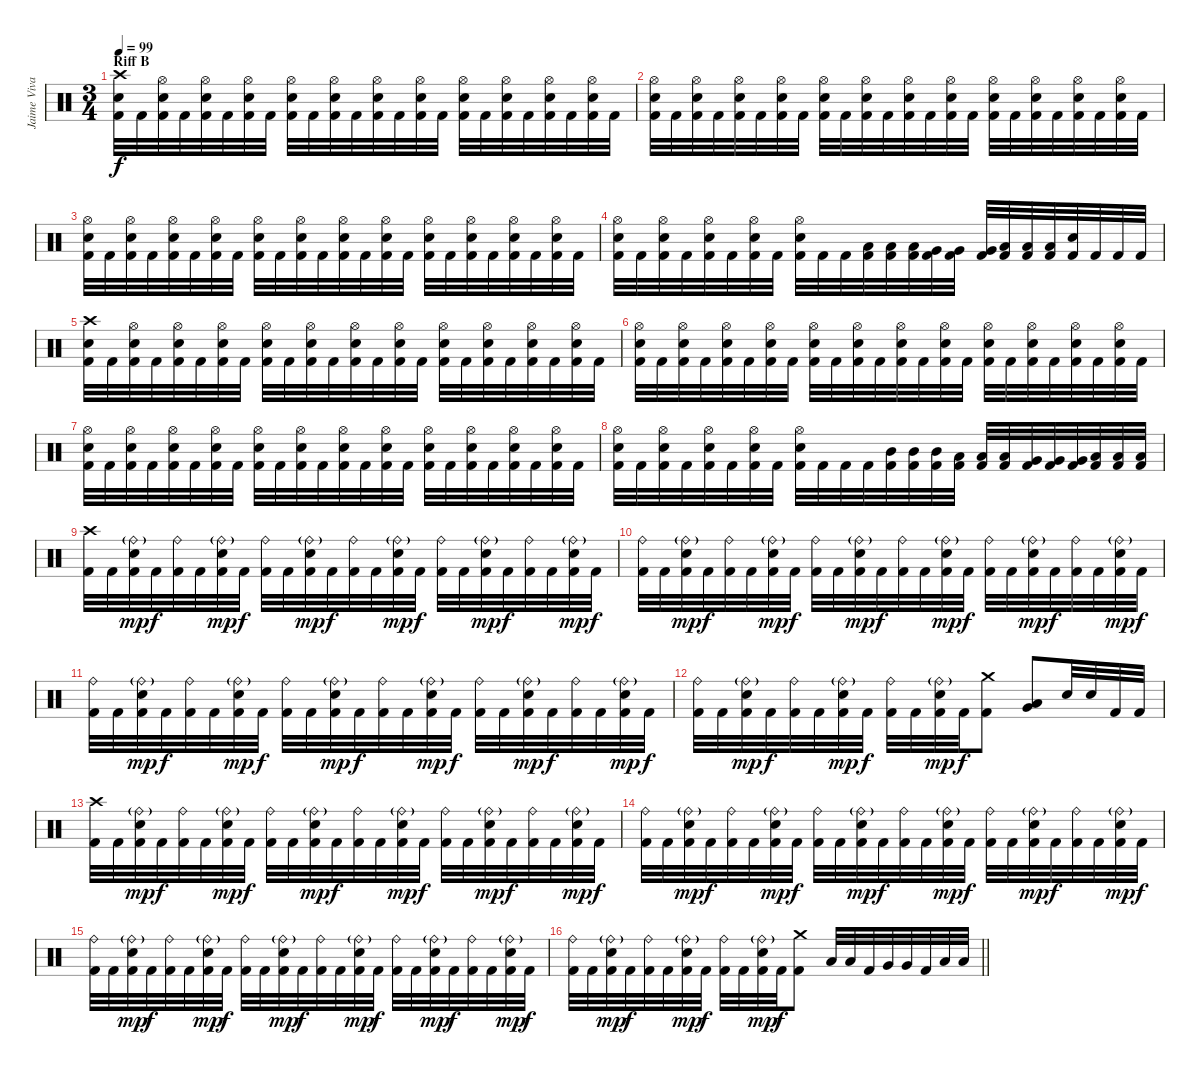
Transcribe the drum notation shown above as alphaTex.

\track ("Jaime Vivar" "Jaime Viva") {instrument percussion}
\staff {score}
\articulation defaults
\ts (3 4)
\section ("" "Riff B")
\tempo 99
\clef neutral
\ks c
("Crash high (hit)" "Snare (hit) 2" "Kick (hit) 2").32{dy f} "Kick (hit) 2".32 ("Hi-Hat (open)" "Snare (hit) 2" "Kick (hit) 2").32 "Kick (hit) 2".32 ("Hi-Hat (open)" "Snare (hit) 2" "Kick (hit) 2").32 "Kick (hit) 2".32 ("Hi-Hat (open)" "Snare (hit) 2" "Kick (hit) 2").32 "Kick (hit) 2".32 ("Hi-Hat (open)" "Snare (hit) 2" "Kick (hit) 2").32 "Kick (hit) 2".32 ("Hi-Hat (open)" "Snare (hit) 2" "Kick (hit) 2").32 "Kick (hit) 2".32 ("Hi-Hat (open)" "Snare (hit) 2" "Kick (hit) 2").32 "Kick (hit) 2".32 ("Hi-Hat (open)" "Snare (hit) 2" "Kick (hit) 2").32 "Kick (hit) 2".32 ("Hi-Hat (open)" "Snare (hit) 2" "Kick (hit) 2").32 "Kick (hit) 2".32 ("Hi-Hat (open)" "Snare (hit) 2" "Kick (hit) 2").32 "Kick (hit) 2".32 ("Hi-Hat (open)" "Snare (hit) 2" "Kick (hit) 2").32 "Kick (hit) 2".32 ("Hi-Hat (open)" "Snare (hit) 2" "Kick (hit) 2").32 "Kick (hit) 2".32 |
("Hi-Hat (open)" "Snare (hit) 2" "Kick (hit) 2").32 "Kick (hit) 2".32 ("Hi-Hat (open)" "Snare (hit) 2" "Kick (hit) 2").32 "Kick (hit) 2".32 ("Hi-Hat (open)" "Snare (hit) 2" "Kick (hit) 2").32 "Kick (hit) 2".32 ("Hi-Hat (open)" "Snare (hit) 2" "Kick (hit) 2").32 "Kick (hit) 2".32 ("Hi-Hat (open)" "Snare (hit) 2" "Kick (hit) 2").32 "Kick (hit) 2".32 ("Hi-Hat (open)" "Snare (hit) 2" "Kick (hit) 2").32 "Kick (hit) 2".32 ("Hi-Hat (open)" "Snare (hit) 2" "Kick (hit) 2").32 "Kick (hit) 2".32 ("Hi-Hat (open)" "Snare (hit) 2" "Kick (hit) 2").32 "Kick (hit) 2".32 ("Hi-Hat (open)" "Snare (hit) 2" "Kick (hit) 2").32 "Kick (hit) 2".32 ("Hi-Hat (open)" "Snare (hit) 2" "Kick (hit) 2").32 "Kick (hit) 2".32 ("Hi-Hat (open)" "Snare (hit) 2" "Kick (hit) 2").32 "Kick (hit) 2".32 ("Hi-Hat (open)" "Snare (hit) 2" "Kick (hit) 2").32 "Kick (hit) 2".32 |
("Hi-Hat (open)" "Snare (hit) 2" "Kick (hit) 2").32 "Kick (hit) 2".32 ("Hi-Hat (open)" "Snare (hit) 2" "Kick (hit) 2").32 "Kick (hit) 2".32 ("Hi-Hat (open)" "Snare (hit) 2" "Kick (hit) 2").32 "Kick (hit) 2".32 ("Hi-Hat (open)" "Snare (hit) 2" "Kick (hit) 2").32 "Kick (hit) 2".32 ("Hi-Hat (open)" "Snare (hit) 2" "Kick (hit) 2").32 "Kick (hit) 2".32 ("Hi-Hat (open)" "Snare (hit) 2" "Kick (hit) 2").32 "Kick (hit) 2".32 ("Hi-Hat (open)" "Snare (hit) 2" "Kick (hit) 2").32 "Kick (hit) 2".32 ("Hi-Hat (open)" "Snare (hit) 2" "Kick (hit) 2").32 "Kick (hit) 2".32 ("Hi-Hat (open)" "Snare (hit) 2" "Kick (hit) 2").32 "Kick (hit) 2".32 ("Hi-Hat (open)" "Snare (hit) 2" "Kick (hit) 2").32 "Kick (hit) 2".32 ("Hi-Hat (open)" "Snare (hit) 2" "Kick (hit) 2").32 "Kick (hit) 2".32 ("Hi-Hat (open)" "Snare (hit) 2" "Kick (hit) 2").32 "Kick (hit) 2".32 |
("Hi-Hat (open)" "Snare (hit) 2" "Kick (hit) 2").32 "Kick (hit) 2".32 ("Hi-Hat (open)" "Snare (hit) 2" "Kick (hit) 2").32 "Kick (hit) 2".32 ("Hi-Hat (open)" "Snare (hit) 2" "Kick (hit) 2").32 "Kick (hit) 2".32 ("Hi-Hat (open)" "Snare (hit) 2" "Kick (hit) 2").32 "Kick (hit) 2".32 ("Hi-Hat (open)" "Snare (hit) 2" "Kick (hit) 2").32 "Kick (hit) 2".32 "Kick (hit) 2".32 ("Low Tom (hit)" "Kick (hit) 2").32 ("Low Tom (hit)" "Kick (hit) 2").32 ("Low Tom (hit)" "Kick (hit) 2").32 ("Very Low Tom (hit)" "Kick (hit) 2").32 ("Very Low Tom (hit)" "Kick (hit) 2").32 ("Very Low Tom (hit)" "Kick (hit) 2").32 ("Low Floor Tom (hit)" "Kick (hit) 2").32 ("Low Floor Tom (hit)" "Kick (hit) 2").32 ("Low Floor Tom (hit)" "Kick (hit) 2").32 ("Snare (hit) 2" "Kick (hit) 2").32 "Kick (hit) 2".32 "Kick (hit) 2".32 "Kick (hit) 2".32 |
("Crash high (hit)" "Snare (hit) 2" "Kick (hit) 2").32 "Kick (hit) 2".32 ("Hi-Hat (open)" "Snare (hit) 2" "Kick (hit) 2").32 "Kick (hit) 2".32 ("Hi-Hat (open)" "Snare (hit) 2" "Kick (hit) 2").32 "Kick (hit) 2".32 ("Hi-Hat (open)" "Snare (hit) 2" "Kick (hit) 2").32 "Kick (hit) 2".32 ("Hi-Hat (open)" "Snare (hit) 2" "Kick (hit) 2").32 "Kick (hit) 2".32 ("Hi-Hat (open)" "Snare (hit) 2" "Kick (hit) 2").32 "Kick (hit) 2".32 ("Hi-Hat (open)" "Snare (hit) 2" "Kick (hit) 2").32 "Kick (hit) 2".32 ("Hi-Hat (open)" "Snare (hit) 2" "Kick (hit) 2").32 "Kick (hit) 2".32 ("Hi-Hat (open)" "Snare (hit) 2" "Kick (hit) 2").32 "Kick (hit) 2".32 ("Hi-Hat (open)" "Snare (hit) 2" "Kick (hit) 2").32 "Kick (hit) 2".32 ("Hi-Hat (open)" "Snare (hit) 2" "Kick (hit) 2").32 "Kick (hit) 2".32 ("Hi-Hat (open)" "Snare (hit) 2" "Kick (hit) 2").32 "Kick (hit) 2".32 |
("Hi-Hat (open)" "Snare (hit) 2" "Kick (hit) 2").32 "Kick (hit) 2".32 ("Hi-Hat (open)" "Snare (hit) 2" "Kick (hit) 2").32 "Kick (hit) 2".32 ("Hi-Hat (open)" "Snare (hit) 2" "Kick (hit) 2").32 "Kick (hit) 2".32 ("Hi-Hat (open)" "Snare (hit) 2" "Kick (hit) 2").32 "Kick (hit) 2".32 ("Hi-Hat (open)" "Snare (hit) 2" "Kick (hit) 2").32 "Kick (hit) 2".32 ("Hi-Hat (open)" "Snare (hit) 2" "Kick (hit) 2").32 "Kick (hit) 2".32 ("Hi-Hat (open)" "Snare (hit) 2" "Kick (hit) 2").32 "Kick (hit) 2".32 ("Hi-Hat (open)" "Snare (hit) 2" "Kick (hit) 2").32 "Kick (hit) 2".32 ("Hi-Hat (open)" "Snare (hit) 2" "Kick (hit) 2").32 "Kick (hit) 2".32 ("Hi-Hat (open)" "Snare (hit) 2" "Kick (hit) 2").32 "Kick (hit) 2".32 ("Hi-Hat (open)" "Snare (hit) 2" "Kick (hit) 2").32 "Kick (hit) 2".32 ("Hi-Hat (open)" "Snare (hit) 2" "Kick (hit) 2").32 "Kick (hit) 2".32 |
("Hi-Hat (open)" "Snare (hit) 2" "Kick (hit) 2").32 "Kick (hit) 2".32 ("Hi-Hat (open)" "Snare (hit) 2" "Kick (hit) 2").32 "Kick (hit) 2".32 ("Hi-Hat (open)" "Snare (hit) 2" "Kick (hit) 2").32 "Kick (hit) 2".32 ("Hi-Hat (open)" "Snare (hit) 2" "Kick (hit) 2").32 "Kick (hit) 2".32 ("Hi-Hat (open)" "Snare (hit) 2" "Kick (hit) 2").32 "Kick (hit) 2".32 ("Hi-Hat (open)" "Snare (hit) 2" "Kick (hit) 2").32 "Kick (hit) 2".32 ("Hi-Hat (open)" "Snare (hit) 2" "Kick (hit) 2").32 "Kick (hit) 2".32 ("Hi-Hat (open)" "Snare (hit) 2" "Kick (hit) 2").32 "Kick (hit) 2".32 ("Hi-Hat (open)" "Snare (hit) 2" "Kick (hit) 2").32 "Kick (hit) 2".32 ("Hi-Hat (open)" "Snare (hit) 2" "Kick (hit) 2").32 "Kick (hit) 2".32 ("Hi-Hat (open)" "Snare (hit) 2" "Kick (hit) 2").32 "Kick (hit) 2".32 ("Hi-Hat (open)" "Snare (hit) 2" "Kick (hit) 2").32 "Kick (hit) 2".32 |
("Hi-Hat (open)" "Snare (hit) 2" "Kick (hit) 2").32 "Kick (hit) 2".32 ("Hi-Hat (open)" "Snare (hit) 2" "Kick (hit) 2").32 "Kick (hit) 2".32 ("Hi-Hat (open)" "Snare (hit) 2" "Kick (hit) 2").32 "Kick (hit) 2".32 ("Hi-Hat (open)" "Snare (hit) 2" "Kick (hit) 2").32 "Kick (hit) 2".32 ("Hi-Hat (open)" "Snare (hit) 2" "Kick (hit) 2").32 "Kick (hit) 2".32 "Kick (hit) 2".32 "Kick (hit) 2".32 ("Mid Tom (hit)" "Kick (hit) 2").32 ("Mid Tom (hit)" "Kick (hit) 2").32 ("Mid Tom (hit)" "Kick (hit) 2").32 ("Low Tom (hit)" "Kick (hit) 2").32 ("Low Tom (hit)" "Kick (hit) 2").32 ("Low Tom (hit)" "Kick (hit) 2").32 ("Very Low Tom (hit)" "Kick (hit) 2").32 ("Very Low Tom (hit)" "Kick (hit) 2").32 ("Very Low Tom (hit)" "Kick (hit) 2").32 ("Low Floor Tom (hit)" "Kick (hit) 2").32 ("Low Floor Tom (hit)" "Kick (hit) 2").32 ("Low Floor Tom (hit)" "Kick (hit) 2").32 |
("Crash high (hit)" "Kick (hit) 2").32 "Kick (hit) 2".32 ("Ride (bell)"{g} "Snare (hit) 2" "Kick (hit) 2").32{dy mp} "Kick (hit) 2".32{dy f} ("Ride (bell)" "Kick (hit) 2").32 "Kick (hit) 2".32 ("Ride (bell)"{g} "Snare (hit) 2" "Kick (hit) 2").32{dy mp} "Kick (hit) 2".32{dy f} ("Ride (bell)" "Kick (hit) 2").32 "Kick (hit) 2".32 ("Ride (bell)"{g} "Snare (hit) 2" "Kick (hit) 2").32{dy mp} "Kick (hit) 2".32{dy f} ("Ride (bell)" "Kick (hit) 2").32 "Kick (hit) 2".32 ("Ride (bell)"{g} "Snare (hit) 2" "Kick (hit) 2").32{dy mp} "Kick (hit) 2".32{dy f} ("Ride (bell)" "Kick (hit) 2").32 "Kick (hit) 2".32 ("Ride (bell)"{g} "Snare (hit) 2" "Kick (hit) 2").32{dy mp} "Kick (hit) 2".32{dy f} ("Ride (bell)" "Kick (hit) 2").32 "Kick (hit) 2".32 ("Ride (bell)"{g} "Snare (hit) 2" "Kick (hit) 2").32{dy mp} "Kick (hit) 2".32{dy f} |
("Ride (bell)" "Kick (hit) 2").32 "Kick (hit) 2".32 ("Ride (bell)"{g} "Snare (hit) 2" "Kick (hit) 2").32{dy mp} "Kick (hit) 2".32{dy f} ("Ride (bell)" "Kick (hit) 2").32 "Kick (hit) 2".32 ("Ride (bell)"{g} "Snare (hit) 2" "Kick (hit) 2").32{dy mp} "Kick (hit) 2".32{dy f} ("Ride (bell)" "Kick (hit) 2").32 "Kick (hit) 2".32 ("Ride (bell)"{g} "Snare (hit) 2" "Kick (hit) 2").32{dy mp} "Kick (hit) 2".32{dy f} ("Ride (bell)" "Kick (hit) 2").32 "Kick (hit) 2".32 ("Ride (bell)"{g} "Snare (hit) 2" "Kick (hit) 2").32{dy mp} "Kick (hit) 2".32{dy f} ("Ride (bell)" "Kick (hit) 2").32 "Kick (hit) 2".32 ("Ride (bell)"{g} "Snare (hit) 2" "Kick (hit) 2").32{dy mp} "Kick (hit) 2".32{dy f} ("Ride (bell)" "Kick (hit) 2").32 "Kick (hit) 2".32 ("Ride (bell)"{g} "Snare (hit) 2" "Kick (hit) 2").32{dy mp} "Kick (hit) 2".32{dy f} |
("Ride (bell)" "Kick (hit) 2").32 "Kick (hit) 2".32 ("Ride (bell)"{g} "Snare (hit) 2" "Kick (hit) 2").32{dy mp} "Kick (hit) 2".32{dy f} ("Ride (bell)" "Kick (hit) 2").32 "Kick (hit) 2".32 ("Ride (bell)"{g} "Snare (hit) 2" "Kick (hit) 2").32{dy mp} "Kick (hit) 2".32{dy f} ("Ride (bell)" "Kick (hit) 2").32 "Kick (hit) 2".32 ("Ride (bell)"{g} "Snare (hit) 2" "Kick (hit) 2").32{dy mp} "Kick (hit) 2".32{dy f} ("Ride (bell)" "Kick (hit) 2").32 "Kick (hit) 2".32 ("Ride (bell)"{g} "Snare (hit) 2" "Kick (hit) 2").32{dy mp} "Kick (hit) 2".32{dy f} ("Ride (bell)" "Kick (hit) 2").32 "Kick (hit) 2".32 ("Ride (bell)"{g} "Snare (hit) 2" "Kick (hit) 2").32{dy mp} "Kick (hit) 2".32{dy f} ("Ride (bell)" "Kick (hit) 2").32 "Kick (hit) 2".32 ("Ride (bell)"{g} "Snare (hit) 2" "Kick (hit) 2").32{dy mp} "Kick (hit) 2".32{dy f} |
("Ride (bell)" "Kick (hit) 2").32 "Kick (hit) 2".32 ("Ride (bell)"{g} "Snare (hit) 2" "Kick (hit) 2").32{dy mp} "Kick (hit) 2".32{dy f} ("Ride (bell)" "Kick (hit) 2").32 "Kick (hit) 2".32 ("Ride (bell)"{g} "Snare (hit) 2" "Kick (hit) 2").32{dy mp} "Kick (hit) 2".32{dy f} ("Ride (bell)" "Kick (hit) 2").32 "Kick (hit) 2".32 ("Ride (bell)"{g} "Snare (hit) 2" "Kick (hit) 2").32{dy mp} "Kick (hit) 2".32{dy f} ("Crash medium (hit)" "Kick (hit) 2").8 ("Low Tom (hit)" "Very Low Tom (hit)").8 "Snare (hit) 2".32 "Snare (hit) 2".32 "Kick (hit) 2".32 "Kick (hit) 2".32 |
("Crash high (hit)" "Kick (hit) 2").32 "Kick (hit) 2".32 ("Ride (bell)"{g} "Snare (hit) 2" "Kick (hit) 2").32{dy mp} "Kick (hit) 2".32{dy f} ("Ride (bell)" "Kick (hit) 2").32 "Kick (hit) 2".32 ("Ride (bell)"{g} "Snare (hit) 2" "Kick (hit) 2").32{dy mp} "Kick (hit) 2".32{dy f} ("Ride (bell)" "Kick (hit) 2").32 "Kick (hit) 2".32 ("Ride (bell)"{g} "Snare (hit) 2" "Kick (hit) 2").32{dy mp} "Kick (hit) 2".32{dy f} ("Ride (bell)" "Kick (hit) 2").32 "Kick (hit) 2".32 ("Ride (bell)"{g} "Snare (hit) 2" "Kick (hit) 2").32{dy mp} "Kick (hit) 2".32{dy f} ("Ride (bell)" "Kick (hit) 2").32 "Kick (hit) 2".32 ("Ride (bell)"{g} "Snare (hit) 2" "Kick (hit) 2").32{dy mp} "Kick (hit) 2".32{dy f} ("Ride (bell)" "Kick (hit) 2").32 "Kick (hit) 2".32 ("Ride (bell)"{g} "Snare (hit) 2" "Kick (hit) 2").32{dy mp} "Kick (hit) 2".32{dy f} |
("Ride (bell)" "Kick (hit) 2").32 "Kick (hit) 2".32 ("Ride (bell)"{g} "Snare (hit) 2" "Kick (hit) 2").32{dy mp} "Kick (hit) 2".32{dy f} ("Ride (bell)" "Kick (hit) 2").32 "Kick (hit) 2".32 ("Ride (bell)"{g} "Snare (hit) 2" "Kick (hit) 2").32{dy mp} "Kick (hit) 2".32{dy f} ("Ride (bell)" "Kick (hit) 2").32 "Kick (hit) 2".32 ("Ride (bell)"{g} "Snare (hit) 2" "Kick (hit) 2").32{dy mp} "Kick (hit) 2".32{dy f} ("Ride (bell)" "Kick (hit) 2").32 "Kick (hit) 2".32 ("Ride (bell)"{g} "Snare (hit) 2" "Kick (hit) 2").32{dy mp} "Kick (hit) 2".32{dy f} ("Ride (bell)" "Kick (hit) 2").32 "Kick (hit) 2".32 ("Ride (bell)"{g} "Snare (hit) 2" "Kick (hit) 2").32{dy mp} "Kick (hit) 2".32{dy f} ("Ride (bell)" "Kick (hit) 2").32 "Kick (hit) 2".32 ("Ride (bell)"{g} "Snare (hit) 2" "Kick (hit) 2").32{dy mp} "Kick (hit) 2".32{dy f} |
("Ride (bell)" "Kick (hit) 2").32 "Kick (hit) 2".32 ("Ride (bell)"{g} "Snare (hit) 2" "Kick (hit) 2").32{dy mp} "Kick (hit) 2".32{dy f} ("Ride (bell)" "Kick (hit) 2").32 "Kick (hit) 2".32 ("Ride (bell)"{g} "Snare (hit) 2" "Kick (hit) 2").32{dy mp} "Kick (hit) 2".32{dy f} ("Ride (bell)" "Kick (hit) 2").32 "Kick (hit) 2".32 ("Ride (bell)"{g} "Snare (hit) 2" "Kick (hit) 2").32{dy mp} "Kick (hit) 2".32{dy f} ("Ride (bell)" "Kick (hit) 2").32 "Kick (hit) 2".32 ("Ride (bell)"{g} "Snare (hit) 2" "Kick (hit) 2").32{dy mp} "Kick (hit) 2".32{dy f} ("Ride (bell)" "Kick (hit) 2").32 "Kick (hit) 2".32 ("Ride (bell)"{g} "Snare (hit) 2" "Kick (hit) 2").32{dy mp} "Kick (hit) 2".32{dy f} ("Ride (bell)" "Kick (hit) 2").32 "Kick (hit) 2".32 ("Ride (bell)"{g} "Snare (hit) 2" "Kick (hit) 2").32{dy mp} "Kick (hit) 2".32{dy f} |
\barLineRight lightlight
("Ride (bell)" "Kick (hit) 2").32 "Kick (hit) 2".32 ("Ride (bell)"{g} "Snare (hit) 2" "Kick (hit) 2").32{dy mp} "Kick (hit) 2".32{dy f} ("Ride (bell)" "Kick (hit) 2").32 "Kick (hit) 2".32 ("Ride (bell)"{g} "Snare (hit) 2" "Kick (hit) 2").32{dy mp} "Kick (hit) 2".32{dy f} ("Ride (bell)" "Kick (hit) 2").32 "Kick (hit) 2".32 ("Ride (bell)"{g} "Snare (hit) 2" "Kick (hit) 2").32{dy mp} "Kick (hit) 2".32{dy f} ("Crash medium (hit)" "Kick (hit) 2").8 "Low Tom (hit)".32 "Low Tom (hit)".32 "Kick (hit) 2".32 "Very Low Tom (hit)".32 "Very Low Tom (hit)".32 "Kick (hit) 2".32 "Low Floor Tom (hit)".32 "Low Floor Tom (hit)".32
